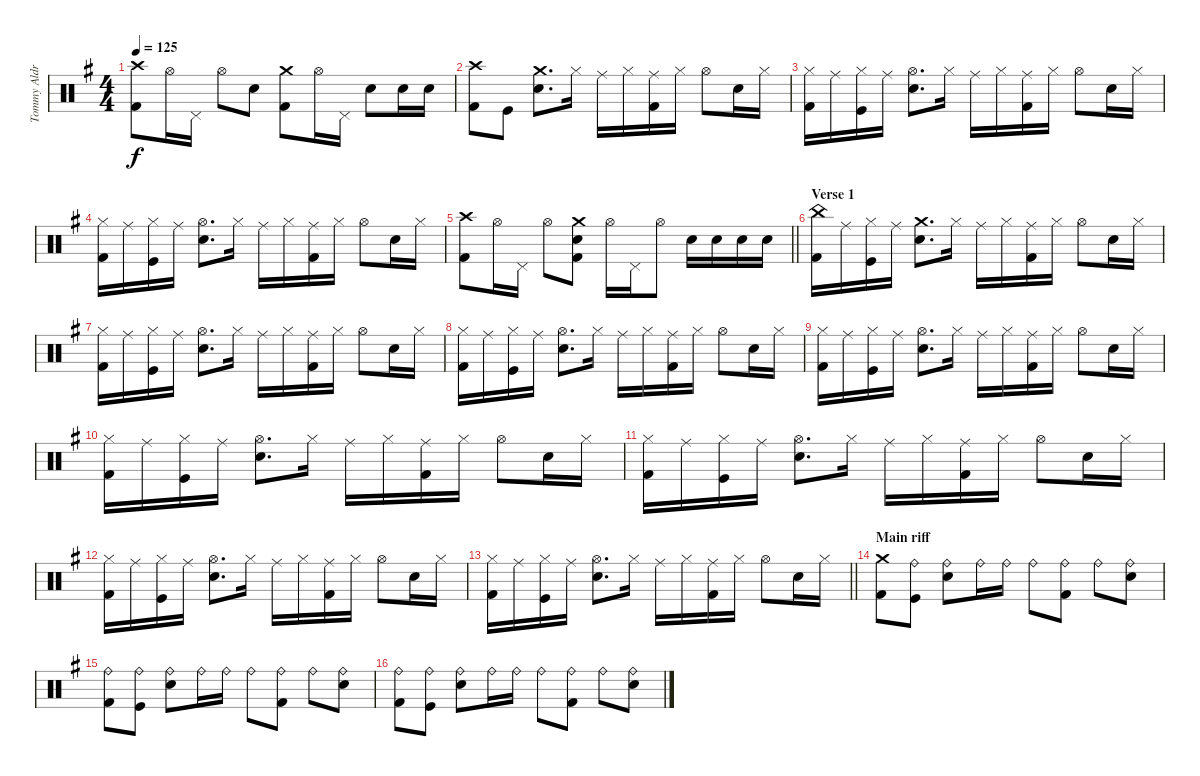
\track ("Tommy Aldridge" "Tommy Aldr") {instrument percussion}
\staff {score}
\articulation defaults
\ts (4 4)
\tempo 125
\clef neutral
\ks eminor
("Crash high (hit)" "Kick (hit) 2").8{dy f} "Hi-Hat (open)".16 "Pedal Hi-Hat (hit)".16 "Hi-Hat (open)".8 "Snare (hit) 2".8 ("Crash medium (hit)" "Kick (hit) 2").8 "Hi-Hat (open)".16 "Pedal Hi-Hat (hit)".16 "Snare (hit) 2".8 "Snare (hit) 2".16 "Snare (hit) 2".16 |
("Crash high (hit)" "Kick (hit) 2").8 "Kick (hit)".8 ("Crash medium (hit)" "Snare (hit) 2").8{d} "Hi-Hat (closed)".16 "Ride (middle)".16 "Hi-Hat (closed)".16 ("Ride (middle)" "Kick (hit) 2").16 "Hi-Hat (closed)".16 "Hi-Hat (open)".8 "Snare (hit) 2".16 "Hi-Hat (closed)".16 |
("Hi-Hat (closed)" "Kick (hit) 2").16 "Ride (middle)".16 ("Hi-Hat (closed)" "Kick (hit)").16 "Ride (middle)".16 ("Hi-Hat (open)" "Snare (hit) 2").8{d} "Hi-Hat (closed)".16 "Ride (middle)".16 "Hi-Hat (closed)".16 ("Ride (middle)" "Kick (hit) 2").16 "Hi-Hat (closed)".16 "Hi-Hat (open)".8 "Snare (hit) 2".16 "Hi-Hat (closed)".16 |
("Hi-Hat (closed)" "Kick (hit) 2").16 "Ride (middle)".16 ("Hi-Hat (closed)" "Kick (hit)").16 "Ride (middle)".16 ("Hi-Hat (open)" "Snare (hit) 2").8{d} "Hi-Hat (closed)".16 "Ride (middle)".16 "Hi-Hat (closed)".16 ("Ride (middle)" "Kick (hit) 2").16 "Hi-Hat (closed)".16 "Hi-Hat (open)".8 "Snare (hit) 2".16 "Hi-Hat (closed)".16 |
\barLineRight lightlight
("Crash high (hit)" "Kick (hit) 2").8 "Hi-Hat (open)".16 "Pedal Hi-Hat (hit)".16 "Hi-Hat (open)".8 ("Crash medium (hit)" "Electric Snare (hit)" "Kick (hit) 2").8 "Hi-Hat (open)".16 "Pedal Hi-Hat (hit)".16 "Hi-Hat (open)".8 "Snare (hit) 2".16 "Snare (hit) 2".16 "Snare (hit) 2".16 "Snare (hit) 2".16 |
\section ("" "Verse 1")
("China (hit)" "Kick (hit) 2").16 "Ride (middle)".16 ("Hi-Hat (closed)" "Kick (hit)").16 "Ride (middle)".16 ("Crash medium (hit)" "Snare (hit) 2").8{d} "Hi-Hat (closed)".16 "Ride (middle)".16 "Hi-Hat (closed)".16 ("Ride (middle)" "Kick (hit) 2").16 "Hi-Hat (closed)".16 "Hi-Hat (open)".8 "Snare (hit) 2".16 "Hi-Hat (closed)".16 |
("Hi-Hat (closed)" "Kick (hit) 2").16 "Ride (middle)".16 ("Hi-Hat (closed)" "Kick (hit)").16 "Ride (middle)".16 ("Hi-Hat (open)" "Snare (hit) 2").8{d} "Hi-Hat (closed)".16 "Ride (middle)".16 "Hi-Hat (closed)".16 ("Ride (middle)" "Kick (hit) 2").16 "Hi-Hat (closed)".16 "Hi-Hat (open)".8 "Snare (hit) 2".16 "Hi-Hat (closed)".16 |
("Hi-Hat (closed)" "Kick (hit) 2").16 "Ride (middle)".16 ("Hi-Hat (closed)" "Kick (hit)").16 "Ride (middle)".16 ("Hi-Hat (open)" "Snare (hit) 2").8{d} "Hi-Hat (closed)".16 "Ride (middle)".16 "Hi-Hat (closed)".16 ("Ride (middle)" "Kick (hit) 2").16 "Hi-Hat (closed)".16 "Hi-Hat (open)".8 "Snare (hit) 2".16 "Hi-Hat (closed)".16 |
("Hi-Hat (closed)" "Kick (hit) 2").16 "Ride (middle)".16 ("Hi-Hat (closed)" "Kick (hit)").16 "Ride (middle)".16 ("Hi-Hat (open)" "Snare (hit) 2").8{d} "Hi-Hat (closed)".16 "Ride (middle)".16 "Hi-Hat (closed)".16 ("Ride (middle)" "Kick (hit) 2").16 "Hi-Hat (closed)".16 "Hi-Hat (open)".8 "Snare (hit) 2".16 "Hi-Hat (closed)".16 |
("Hi-Hat (closed)" "Kick (hit) 2").16 "Ride (middle)".16 ("Hi-Hat (closed)" "Kick (hit)").16 "Ride (middle)".16 ("Hi-Hat (open)" "Snare (hit) 2").8{d} "Hi-Hat (closed)".16 "Ride (middle)".16 "Hi-Hat (closed)".16 ("Ride (middle)" "Kick (hit) 2").16 "Hi-Hat (closed)".16 "Hi-Hat (open)".8 "Snare (hit) 2".16 "Hi-Hat (closed)".16 |
("Hi-Hat (closed)" "Kick (hit) 2").16 "Ride (middle)".16 ("Hi-Hat (closed)" "Kick (hit)").16 "Ride (middle)".16 ("Hi-Hat (open)" "Snare (hit) 2").8{d} "Hi-Hat (closed)".16 "Ride (middle)".16 "Hi-Hat (closed)".16 ("Ride (middle)" "Kick (hit) 2").16 "Hi-Hat (closed)".16 "Hi-Hat (open)".8 "Snare (hit) 2".16 "Hi-Hat (closed)".16 |
("Hi-Hat (closed)" "Kick (hit) 2").16 "Ride (middle)".16 ("Hi-Hat (closed)" "Kick (hit)").16 "Ride (middle)".16 ("Hi-Hat (open)" "Snare (hit) 2").8{d} "Hi-Hat (closed)".16 "Ride (middle)".16 "Hi-Hat (closed)".16 ("Ride (middle)" "Kick (hit) 2").16 "Hi-Hat (closed)".16 "Hi-Hat (open)".8 "Snare (hit) 2".16 "Hi-Hat (closed)".16 |
\barLineRight lightlight
("Hi-Hat (closed)" "Kick (hit) 2").16 "Ride (middle)".16 ("Hi-Hat (closed)" "Kick (hit)").16 "Ride (middle)".16 ("Hi-Hat (open)" "Snare (hit) 2").8{d} "Hi-Hat (closed)".16 "Ride (middle)".16 "Hi-Hat (closed)".16 ("Ride (middle)" "Kick (hit) 2").16 "Hi-Hat (closed)".16 "Hi-Hat (open)".8 "Snare (hit) 2".16 "Hi-Hat (closed)".16 |
\section ("" "Main riff")
("Crash medium (hit)" "Kick (hit) 2").8 ("Ride (bell)" "Kick (hit)").8 ("Ride (bell)" "Snare (hit) 2").8 "Ride (bell)".16 "Ride (bell)".16 "Ride (bell)".8 ("Ride (bell)" "Kick (hit) 2").8 "Ride (bell)".8 ("Ride (bell)" "Snare (hit) 2").8 |
("Ride (bell)" "Kick (hit) 2").8 ("Ride (bell)" "Kick (hit)").8 ("Ride (bell)" "Snare (hit) 2").8 "Ride (bell)".16 "Ride (bell)".16 "Ride (bell)".8 ("Ride (bell)" "Kick (hit) 2").8 "Ride (bell)".8 ("Ride (bell)" "Snare (hit) 2").8 |
("Ride (bell)" "Kick (hit) 2").8 ("Ride (bell)" "Kick (hit)").8 ("Ride (bell)" "Snare (hit) 2").8 "Ride (bell)".16 "Ride (bell)".16 "Ride (bell)".8 ("Ride (bell)" "Kick (hit) 2").8 "Ride (bell)".8 ("Ride (bell)" "Snare (hit) 2").8
